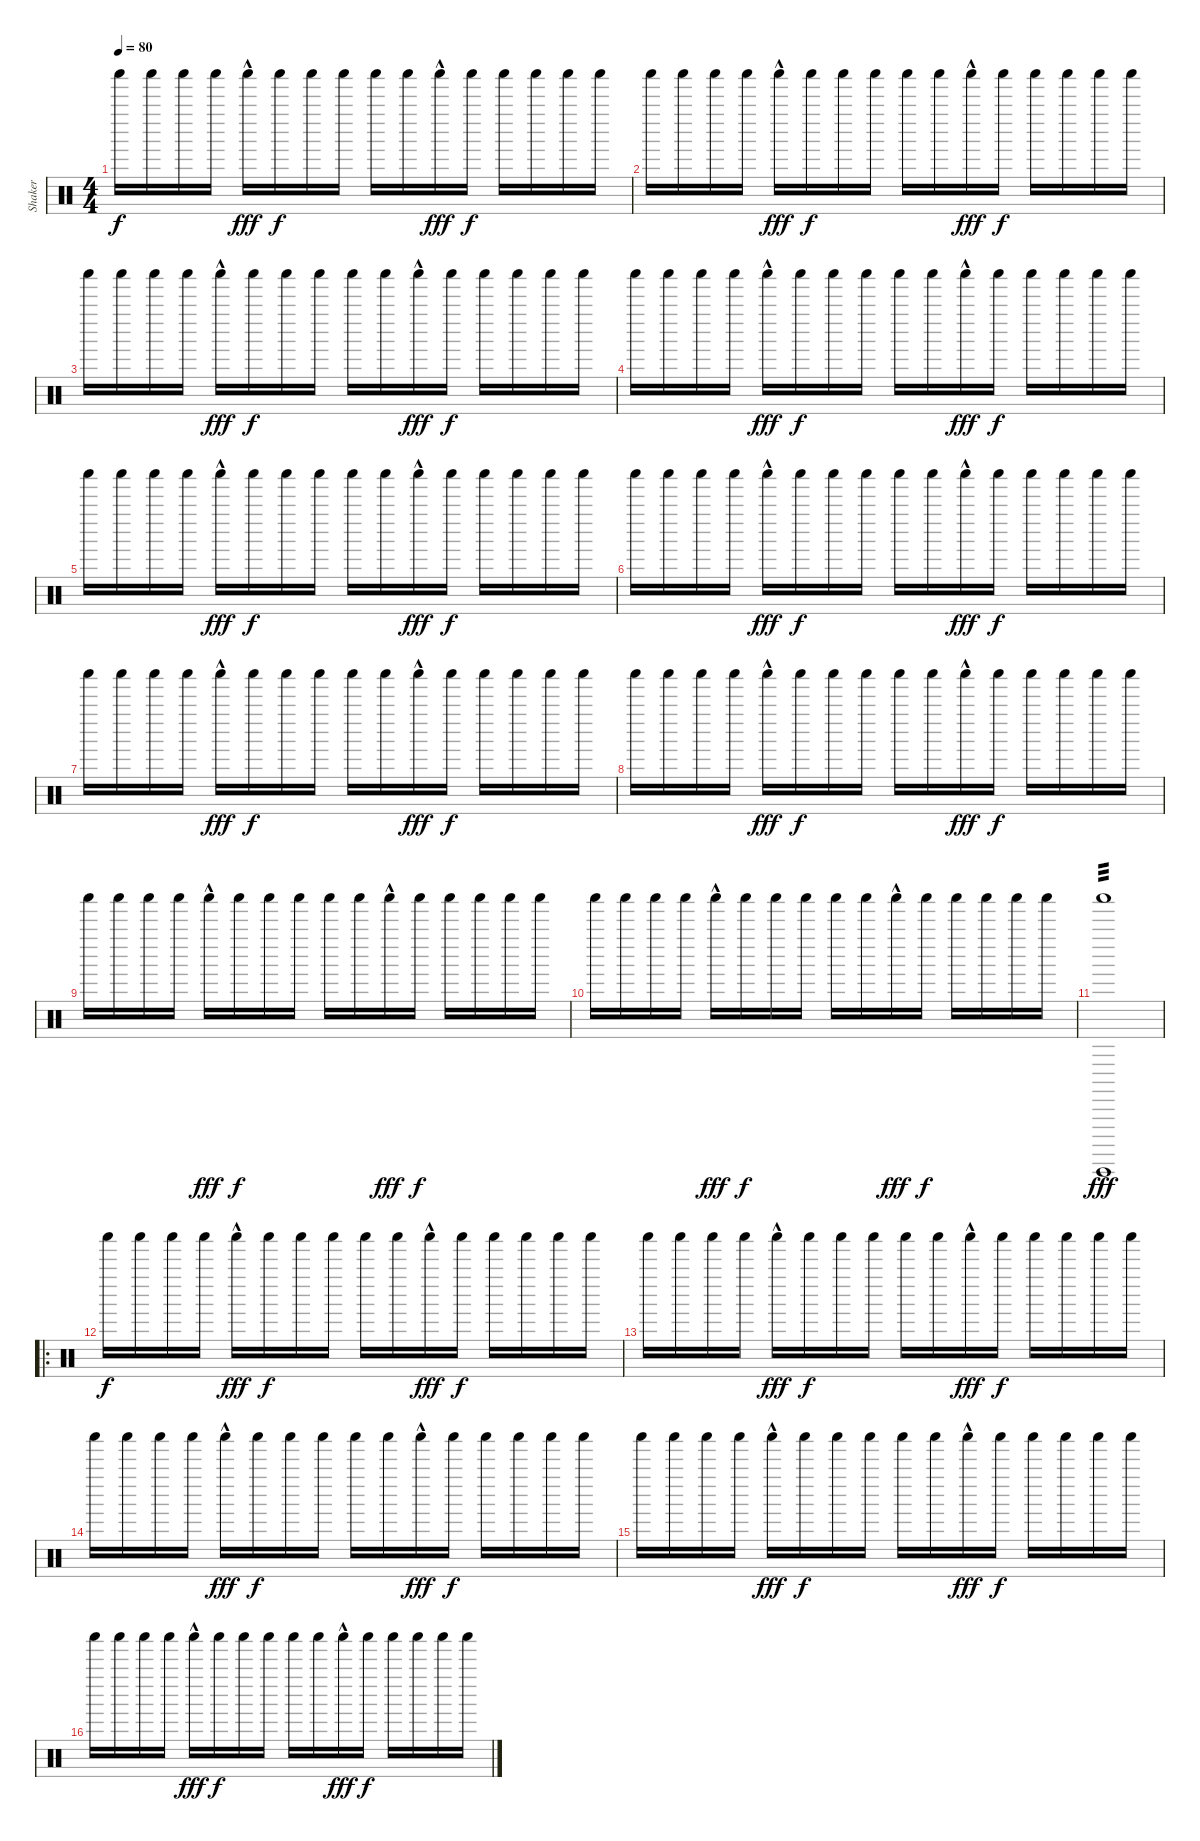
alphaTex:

\track ("Shaker" "Shaker") {instrument percussion}
\staff {score}
\articulation defaults
\ts (4 4)
\tempo 80
\clef neutral
\ks c "Shaker (hit)".16{dy f} "Shaker (hit)".16 "Shaker (hit)".16 "Shaker (hit)".16 "Shaker (hit)"{hac}.16{dy fff} "Shaker (hit)".16{dy f} "Shaker (hit)".16 "Shaker (hit)".16 "Shaker (hit)".16 "Shaker (hit)".16 "Shaker (hit)"{hac}.16{dy fff} "Shaker (hit)".16{dy f} "Shaker (hit)".16 "Shaker (hit)".16 "Shaker (hit)".16 "Shaker (hit)".16
|
"Shaker (hit)".16 "Shaker (hit)".16 "Shaker (hit)".16 "Shaker (hit)".16 "Shaker (hit)"{hac}.16{dy fff} "Shaker (hit)".16{dy f} "Shaker (hit)".16 "Shaker (hit)".16 "Shaker (hit)".16 "Shaker (hit)".16 "Shaker (hit)"{hac}.16{dy fff} "Shaker (hit)".16{dy f} "Shaker (hit)".16 "Shaker (hit)".16 "Shaker (hit)".16 "Shaker (hit)".16 |
"Shaker (hit)".16 "Shaker (hit)".16 "Shaker (hit)".16 "Shaker (hit)".16 "Shaker (hit)"{hac}.16{dy fff} "Shaker (hit)".16{dy f} "Shaker (hit)".16 "Shaker (hit)".16 "Shaker (hit)".16 "Shaker (hit)".16 "Shaker (hit)"{hac}.16{dy fff} "Shaker (hit)".16{dy f} "Shaker (hit)".16 "Shaker (hit)".16 "Shaker (hit)".16 "Shaker (hit)".16 |
"Shaker (hit)".16 "Shaker (hit)".16 "Shaker (hit)".16 "Shaker (hit)".16 "Shaker (hit)"{hac}.16{dy fff} "Shaker (hit)".16{dy f} "Shaker (hit)".16 "Shaker (hit)".16 "Shaker (hit)".16 "Shaker (hit)".16 "Shaker (hit)"{hac}.16{dy fff} "Shaker (hit)".16{dy f} "Shaker (hit)".16 "Shaker (hit)".16 "Shaker (hit)".16 "Shaker (hit)".16 |
"Shaker (hit)".16 "Shaker (hit)".16 "Shaker (hit)".16 "Shaker (hit)".16 "Shaker (hit)"{hac}.16{dy fff} "Shaker (hit)".16{dy f} "Shaker (hit)".16 "Shaker (hit)".16 "Shaker (hit)".16 "Shaker (hit)".16 "Shaker (hit)"{hac}.16{dy fff} "Shaker (hit)".16{dy f} "Shaker (hit)".16 "Shaker (hit)".16 "Shaker (hit)".16 "Shaker (hit)".16 |
"Shaker (hit)".16 "Shaker (hit)".16 "Shaker (hit)".16 "Shaker (hit)".16 "Shaker (hit)"{hac}.16{dy fff} "Shaker (hit)".16{dy f} "Shaker (hit)".16 "Shaker (hit)".16 "Shaker (hit)".16 "Shaker (hit)".16 "Shaker (hit)"{hac}.16{dy fff} "Shaker (hit)".16{dy f} "Shaker (hit)".16 "Shaker (hit)".16 "Shaker (hit)".16 "Shaker (hit)".16 |
"Shaker (hit)".16 "Shaker (hit)".16 "Shaker (hit)".16 "Shaker (hit)".16 "Shaker (hit)"{hac}.16{dy fff} "Shaker (hit)".16{dy f} "Shaker (hit)".16 "Shaker (hit)".16 "Shaker (hit)".16 "Shaker (hit)".16 "Shaker (hit)"{hac}.16{dy fff} "Shaker (hit)".16{dy f} "Shaker (hit)".16 "Shaker (hit)".16 "Shaker (hit)".16 "Shaker (hit)".16 |
"Shaker (hit)".16 "Shaker (hit)".16 "Shaker (hit)".16 "Shaker (hit)".16 "Shaker (hit)"{hac}.16{dy fff} "Shaker (hit)".16{dy f} "Shaker (hit)".16 "Shaker (hit)".16 "Shaker (hit)".16 "Shaker (hit)".16 "Shaker (hit)"{hac}.16{dy fff} "Shaker (hit)".16{dy f} "Shaker (hit)".16 "Shaker (hit)".16 "Shaker (hit)".16 "Shaker (hit)".16 |
"Shaker (hit)".16 "Shaker (hit)".16 "Shaker (hit)".16 "Shaker (hit)".16 "Shaker (hit)"{hac}.16{dy fff} "Shaker (hit)".16{dy f} "Shaker (hit)".16 "Shaker (hit)".16 "Shaker (hit)".16 "Shaker (hit)".16 "Shaker (hit)"{hac}.16{dy fff} "Shaker (hit)".16{dy f} "Shaker (hit)".16 "Shaker (hit)".16 "Shaker (hit)".16 "Shaker (hit)".16 |
"Shaker (hit)".16 "Shaker (hit)".16 "Shaker (hit)".16 "Shaker (hit)".16 "Shaker (hit)"{hac}.16{dy fff} "Shaker (hit)".16{dy f} "Shaker (hit)".16 "Shaker (hit)".16 "Shaker (hit)".16 "Shaker (hit)".16 "Shaker (hit)"{hac}.16{dy fff} "Shaker (hit)".16{dy f} "Shaker (hit)".16 "Shaker (hit)".16 "Shaker (hit)".16 "Shaker (hit)".16 |
("Guiro (hit)" "Shaker (hit)").1{tp 3 dy fff} |
\ro "Shaker (hit)".16{dy f} "Shaker (hit)".16 "Shaker (hit)".16 "Shaker (hit)".16 "Shaker (hit)"{hac}.16{dy fff} "Shaker (hit)".16{dy f} "Shaker (hit)".16 "Shaker (hit)".16 "Shaker (hit)".16 "Shaker (hit)".16 "Shaker (hit)"{hac}.16{dy fff} "Shaker (hit)".16{dy f} "Shaker (hit)".16 "Shaker (hit)".16 "Shaker (hit)".16 "Shaker (hit)".16
|
"Shaker (hit)".16 "Shaker (hit)".16 "Shaker (hit)".16 "Shaker (hit)".16 "Shaker (hit)"{hac}.16{dy fff} "Shaker (hit)".16{dy f} "Shaker (hit)".16 "Shaker (hit)".16 "Shaker (hit)".16 "Shaker (hit)".16 "Shaker (hit)"{hac}.16{dy fff} "Shaker (hit)".16{dy f} "Shaker (hit)".16 "Shaker (hit)".16 "Shaker (hit)".16 "Shaker (hit)".16 |
"Shaker (hit)".16 "Shaker (hit)".16 "Shaker (hit)".16 "Shaker (hit)".16 "Shaker (hit)"{hac}.16{dy fff} "Shaker (hit)".16{dy f} "Shaker (hit)".16 "Shaker (hit)".16 "Shaker (hit)".16 "Shaker (hit)".16 "Shaker (hit)"{hac}.16{dy fff} "Shaker (hit)".16{dy f} "Shaker (hit)".16 "Shaker (hit)".16 "Shaker (hit)".16 "Shaker (hit)".16 |
"Shaker (hit)".16 "Shaker (hit)".16 "Shaker (hit)".16 "Shaker (hit)".16 "Shaker (hit)"{hac}.16{dy fff} "Shaker (hit)".16{dy f} "Shaker (hit)".16 "Shaker (hit)".16 "Shaker (hit)".16 "Shaker (hit)".16 "Shaker (hit)"{hac}.16{dy fff} "Shaker (hit)".16{dy f} "Shaker (hit)".16 "Shaker (hit)".16 "Shaker (hit)".16 "Shaker (hit)".16 |
"Shaker (hit)".16 "Shaker (hit)".16 "Shaker (hit)".16 "Shaker (hit)".16 "Shaker (hit)"{hac}.16{dy fff} "Shaker (hit)".16{dy f} "Shaker (hit)".16 "Shaker (hit)".16 "Shaker (hit)".16 "Shaker (hit)".16 "Shaker (hit)"{hac}.16{dy fff} "Shaker (hit)".16{dy f} "Shaker (hit)".16 "Shaker (hit)".16 "Shaker (hit)".16 "Shaker (hit)".16
